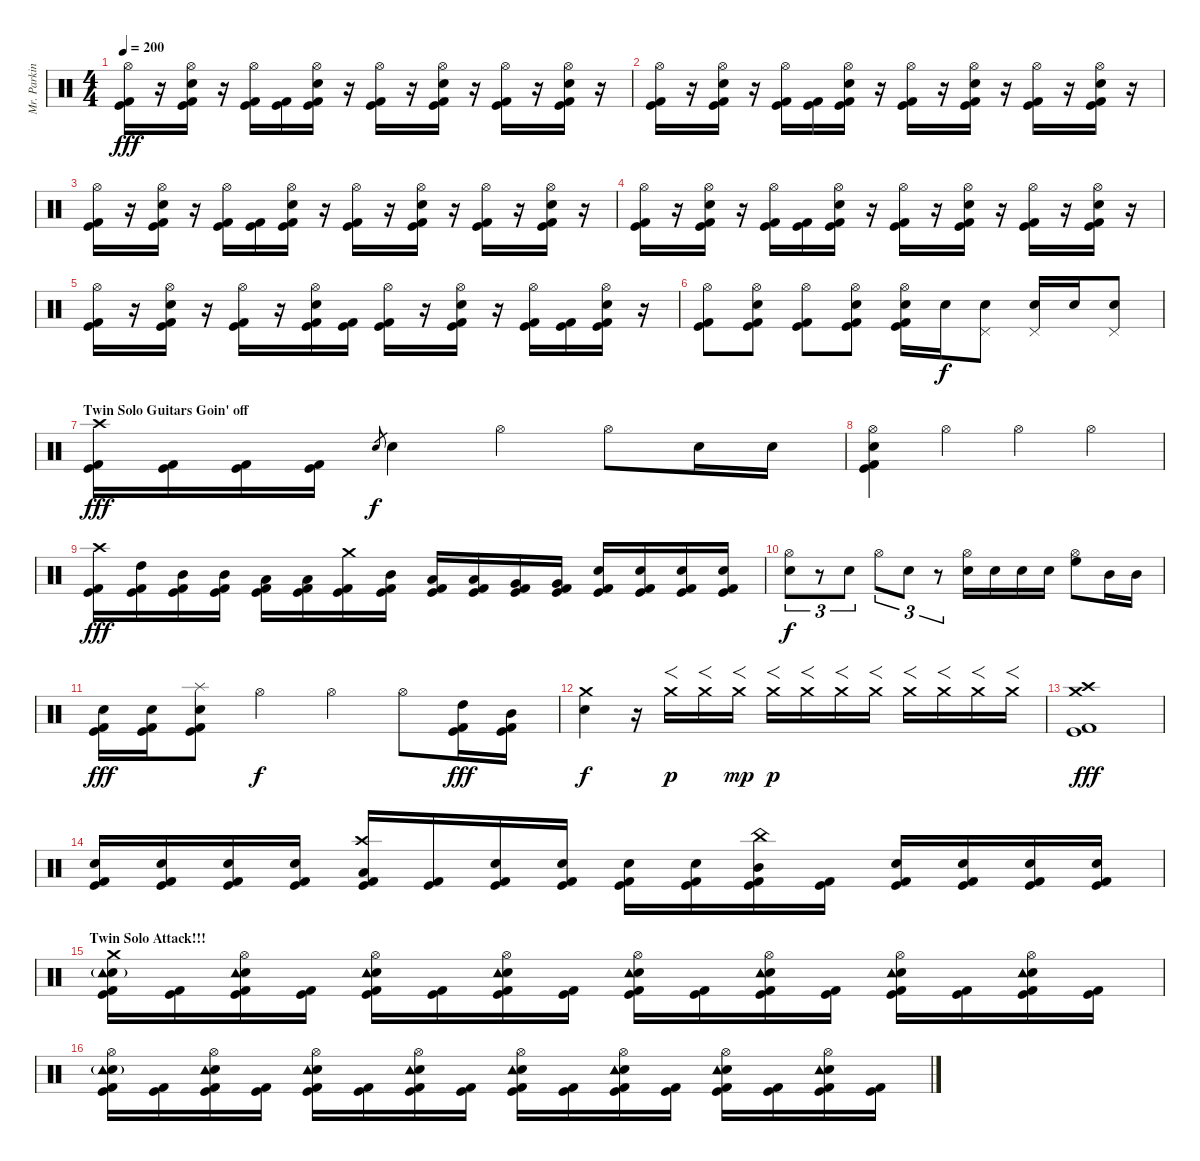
\track ("Mr. Parkinson" "Mr. Parkin") {instrument percussion}
\staff {score}
\articulation defaults
\ts (4 4)
\tempo 200
\clef neutral
\ks c
("Hi-Hat (open)" "Kick (hit)" "Kick (hit) 2").16{dy fff} r.16 ("Hi-Hat (open)" "Electric Snare (hit)" "Kick (hit)" "Kick (hit) 2").16 r.16 ("Hi-Hat (open)" "Kick (hit)" "Kick (hit) 2").16 ("Kick (hit)" "Kick (hit) 2").16 ("Hi-Hat (open)" "Electric Snare (hit)" "Kick (hit)" "Kick (hit) 2").16 r.16 ("Hi-Hat (open)" "Kick (hit)" "Kick (hit) 2").16 r.16 ("Hi-Hat (open)" "Electric Snare (hit)" "Kick (hit)" "Kick (hit) 2").16 r.16 ("Hi-Hat (open)" "Kick (hit)" "Kick (hit) 2").16 r.16 ("Hi-Hat (open)" "Electric Snare (hit)" "Kick (hit)" "Kick (hit) 2").16 r.16 |
("Hi-Hat (open)" "Kick (hit)" "Kick (hit) 2").16 r.16 ("Hi-Hat (open)" "Electric Snare (hit)" "Kick (hit)" "Kick (hit) 2").16 r.16 ("Hi-Hat (open)" "Kick (hit)" "Kick (hit) 2").16 ("Kick (hit)" "Kick (hit) 2").16 ("Hi-Hat (open)" "Electric Snare (hit)" "Kick (hit)" "Kick (hit) 2").16 r.16 ("Hi-Hat (open)" "Kick (hit)" "Kick (hit) 2").16 r.16 ("Hi-Hat (open)" "Electric Snare (hit)" "Kick (hit)" "Kick (hit) 2").16 r.16 ("Hi-Hat (open)" "Kick (hit)" "Kick (hit) 2").16 r.16 ("Hi-Hat (open)" "Electric Snare (hit)" "Kick (hit)" "Kick (hit) 2").16 r.16 |
("Hi-Hat (open)" "Kick (hit)" "Kick (hit) 2").16 r.16 ("Hi-Hat (open)" "Electric Snare (hit)" "Kick (hit)" "Kick (hit) 2").16 r.16 ("Hi-Hat (open)" "Kick (hit)" "Kick (hit) 2").16 ("Kick (hit)" "Kick (hit) 2").16 ("Hi-Hat (open)" "Electric Snare (hit)" "Kick (hit)" "Kick (hit) 2").16 r.16 ("Hi-Hat (open)" "Kick (hit)" "Kick (hit) 2").16 r.16 ("Hi-Hat (open)" "Electric Snare (hit)" "Kick (hit)" "Kick (hit) 2").16 r.16 ("Hi-Hat (open)" "Kick (hit)" "Kick (hit) 2").16 r.16 ("Hi-Hat (open)" "Electric Snare (hit)" "Kick (hit)" "Kick (hit) 2").16 r.16 |
("Hi-Hat (open)" "Kick (hit)" "Kick (hit) 2").16 r.16 ("Hi-Hat (open)" "Electric Snare (hit)" "Kick (hit)" "Kick (hit) 2").16 r.16 ("Hi-Hat (open)" "Kick (hit)" "Kick (hit) 2").16 ("Kick (hit)" "Kick (hit) 2").16 ("Hi-Hat (open)" "Electric Snare (hit)" "Kick (hit)" "Kick (hit) 2").16 r.16 ("Hi-Hat (open)" "Kick (hit)" "Kick (hit) 2").16 r.16 ("Hi-Hat (open)" "Electric Snare (hit)" "Kick (hit)" "Kick (hit) 2").16 r.16 ("Hi-Hat (open)" "Kick (hit)" "Kick (hit) 2").16 r.16 ("Hi-Hat (open)" "Electric Snare (hit)" "Kick (hit)" "Kick (hit) 2").16 r.16 |
("Hi-Hat (open)" "Kick (hit)" "Kick (hit) 2").16 r.16 ("Hi-Hat (open)" "Electric Snare (hit)" "Kick (hit)" "Kick (hit) 2").16 r.16 ("Hi-Hat (open)" "Kick (hit)" "Kick (hit) 2").16 r.16 ("Hi-Hat (open)" "Electric Snare (hit)" "Kick (hit)" "Kick (hit) 2").16 ("Kick (hit)" "Kick (hit) 2").16 ("Hi-Hat (open)" "Kick (hit)" "Kick (hit) 2").16 r.16 ("Hi-Hat (open)" "Electric Snare (hit)" "Kick (hit)" "Kick (hit) 2").16 r.16 ("Hi-Hat (open)" "Kick (hit)" "Kick (hit) 2").16 ("Kick (hit)" "Kick (hit) 2").16 ("Hi-Hat (open)" "Electric Snare (hit)" "Kick (hit)" "Kick (hit) 2").16 r.16 |
("Hi-Hat (open)" "Kick (hit)" "Kick (hit) 2").8 ("Hi-Hat (open)" "Electric Snare (hit)" "Kick (hit) 2" "Kick (hit)").8 ("Hi-Hat (open)" "Kick (hit) 2" "Kick (hit)").8 ("Hi-Hat (open)" "Electric Snare (hit)" "Kick (hit) 2" "Kick (hit)").8 ("Hi-Hat (open)" "Electric Snare (hit)" "Kick (hit) 2" "Kick (hit)").16 "Electric Snare (hit)".16{dy f} ("Pedal Hi-Hat (hit)" "Electric Snare (hit)").8 ("Pedal Hi-Hat (hit)" "Electric Snare (hit)").16 "Electric Snare (hit)".16 ("Pedal Hi-Hat (hit)" "Electric Snare (hit)").8 |
\section ("" "Twin Solo Guitars Goin' off")
("Crash high (hit)" "Kick (hit)" "Kick (hit) 2").16{dy fff} ("Kick (hit)" "Kick (hit) 2").16 ("Kick (hit)" "Kick (hit) 2").16 ("Kick (hit)" "Kick (hit) 2").16 "Electric Snare (hit)".8{gr dy f} "Electric Snare (hit)".4 "Hi-Hat (open)".4 "Hi-Hat (open)".8 "Electric Snare (hit)".16 "Electric Snare (hit)".16 |
("Hi-Hat (open)" "Electric Snare (hit)" "Kick (hit)" "Kick (hit) 2").4 "Hi-Hat (open)".4 "Hi-Hat (open)".4 "Hi-Hat (open)".4 |
("Crash high (hit)" "Kick (hit)" "Kick (hit) 2").16{dy fff} ("High Tom (hit)" "Kick (hit)" "Kick (hit) 2").16 ("Mid Tom (hit)" "Kick (hit)" "Kick (hit) 2").16 ("Mid Tom (hit)" "Kick (hit)" "Kick (hit) 2").16 ("Low Tom (hit)" "Kick (hit)" "Kick (hit) 2").16 ("Low Tom (hit)" "Kick (hit)" "Kick (hit) 2").16 ("Crash medium (hit)" "Kick (hit)" "Kick (hit) 2").16 ("Mid Tom (hit)" "Kick (hit)" "Kick (hit) 2").16 ("Low Tom (hit)" "Kick (hit)" "Kick (hit) 2").16 ("Low Tom (hit)" "Kick (hit)" "Kick (hit) 2").16 ("Very Low Tom (hit)" "Kick (hit)" "Kick (hit) 2").16 ("Very Low Tom (hit)" "Kick (hit)" "Kick (hit) 2").16 ("Electric Snare (hit)" "Kick (hit)" "Kick (hit) 2").16 ("Electric Snare (hit)" "Kick (hit)" "Kick (hit) 2").16 ("Electric Snare (hit)" "Kick (hit)" "Kick (hit) 2").16 ("Electric Snare (hit)" "Kick (hit)" "Kick (hit) 2").16 |
("Hi-Hat (open)" "Electric Snare (hit)").8{tu (3 2) dy f} r.8{tu (3 2)} "Electric Snare (hit)".8{tu (3 2)} "Hi-Hat (open)".8{tu (3 2)} "Electric Snare (hit)".8{tu (3 2)} r.8{tu (3 2)} ("Hi-Hat (open)" "Electric Snare (hit)").16 "Electric Snare (hit)".16 "Electric Snare (hit)".16 "Electric Snare (hit)".16 ("Hi-Hat (open)" "High Floor Tom (hit)").8 "Mid Tom (hit)".16 "Mid Tom (hit)".16 |
("Electric Snare (hit)" "Kick (hit)" "Kick (hit) 2").16{dy fff} ("Electric Snare (hit)" "Kick (hit)" "Kick (hit) 2").16 ("Splash (hit)" "Electric Snare (hit)" "Kick (hit)" "Kick (hit) 2").8 "Hi-Hat (open)".4{dy f} "Hi-Hat (open)".4 "Hi-Hat (open)".8 ("High Tom (hit)" "Kick (hit)" "Kick (hit) 2").16{dy fff} ("Mid Tom (hit)" "Kick (hit)" "Kick (hit) 2").16 |
("Crash medium (hit)" "Electric Snare (hit)").4{dy f} r.16 "Crash medium (hit)".16{f dy p} "Crash medium (hit)".16{f} "Crash medium (hit)".16{f dy mp} "Crash medium (hit)".16{f dy p} "Crash medium (hit)".16{f} "Crash medium (hit)".16{f} "Crash medium (hit)".16{f} "Crash medium (hit)".16{f} "Crash medium (hit)".16{f} "Crash medium (hit)".16{f} "Crash medium (hit)".16{f} |
("Crash high (hit)" "Crash medium (hit)" "Kick (hit)" "Kick (hit) 2").1{dy fff} |
("Electric Snare (hit)" "Kick (hit)" "Kick (hit) 2").16 ("Electric Snare (hit)" "Kick (hit)" "Kick (hit) 2").16 ("Electric Snare (hit)" "Kick (hit)" "Kick (hit) 2").16 ("Electric Snare (hit)" "Kick (hit)" "Kick (hit) 2").16 ("Crash high (hit)" "Low Tom (hit)" "Kick (hit)" "Kick (hit) 2").16 ("Kick (hit)" "Kick (hit) 2").16 ("Electric Snare (hit)" "Kick (hit)" "Kick (hit) 2").16 ("Electric Snare (hit)" "Kick (hit)" "Kick (hit) 2").16 ("Electric Snare (hit)" "Kick (hit)" "Kick (hit) 2").16 ("Electric Snare (hit)" "Kick (hit)" "Kick (hit) 2").16 ("China (hit)" "Mid Tom (hit)" "Kick (hit)" "Kick (hit) 2").16 ("Kick (hit)" "Kick (hit) 2").16 ("Electric Snare (hit)" "Kick (hit)" "Kick (hit) 2").16 ("Electric Snare (hit)" "Kick (hit)" "Kick (hit) 2").16 ("Electric Snare (hit)" "Kick (hit)" "Kick (hit) 2").16 ("Electric Snare (hit)" "Kick (hit)" "Kick (hit) 2").16 |
\section ("" "Twin Solo Attack!!!")
("Crash medium (hit)" "Electric Snare (hit)" "Tambourine (hit)"{g} "Kick (hit)" "Kick (hit) 2").16 ("Kick (hit)" "Kick (hit) 2").16 ("Hi-Hat (open)" "Electric Snare (hit)" "Tambourine (hit)" "Kick (hit)" "Kick (hit) 2").16 ("Kick (hit)" "Kick (hit) 2").16 ("Hi-Hat (open)" "Electric Snare (hit)" "Tambourine (hit)" "Kick (hit)" "Kick (hit) 2").16 ("Kick (hit)" "Kick (hit) 2").16 ("Hi-Hat (open)" "Electric Snare (hit)" "Tambourine (hit)" "Kick (hit)" "Kick (hit) 2").16 ("Kick (hit)" "Kick (hit) 2").16 ("Hi-Hat (open)" "Electric Snare (hit)" "Tambourine (hit)" "Kick (hit)" "Kick (hit) 2").16 ("Kick (hit)" "Kick (hit) 2").16 ("Hi-Hat (open)" "Electric Snare (hit)" "Tambourine (hit)" "Kick (hit)" "Kick (hit) 2").16 ("Kick (hit)" "Kick (hit) 2").16 ("Hi-Hat (open)" "Electric Snare (hit)" "Tambourine (hit)" "Kick (hit)" "Kick (hit) 2").16 ("Kick (hit)" "Kick (hit) 2").16 ("Hi-Hat (open)" "Electric Snare (hit)" "Tambourine (hit)" "Kick (hit)" "Kick (hit) 2").16 ("Kick (hit)" "Kick (hit) 2").16 |
("Hi-Hat (open)" "Electric Snare (hit)" "Tambourine (hit)"{g} "Kick (hit)" "Kick (hit) 2").16 ("Kick (hit)" "Kick (hit) 2").16 ("Hi-Hat (open)" "Electric Snare (hit)" "Tambourine (hit)" "Kick (hit)" "Kick (hit) 2").16 ("Kick (hit)" "Kick (hit) 2").16 ("Hi-Hat (open)" "Electric Snare (hit)" "Tambourine (hit)" "Kick (hit)" "Kick (hit) 2").16 ("Kick (hit)" "Kick (hit) 2").16 ("Hi-Hat (open)" "Electric Snare (hit)" "Tambourine (hit)" "Kick (hit)" "Kick (hit) 2").16 ("Kick (hit)" "Kick (hit) 2").16 ("Hi-Hat (open)" "Electric Snare (hit)" "Tambourine (hit)" "Kick (hit)" "Kick (hit) 2").16 ("Kick (hit)" "Kick (hit) 2").16 ("Hi-Hat (open)" "Electric Snare (hit)" "Tambourine (hit)" "Kick (hit)" "Kick (hit) 2").16 ("Kick (hit)" "Kick (hit) 2").16 ("Hi-Hat (open)" "Electric Snare (hit)" "Tambourine (hit)" "Kick (hit)" "Kick (hit) 2").16 ("Kick (hit)" "Kick (hit) 2").16 ("Hi-Hat (open)" "Electric Snare (hit)" "Tambourine (hit)" "Kick (hit)" "Kick (hit) 2").16 ("Kick (hit)" "Kick (hit) 2").16
